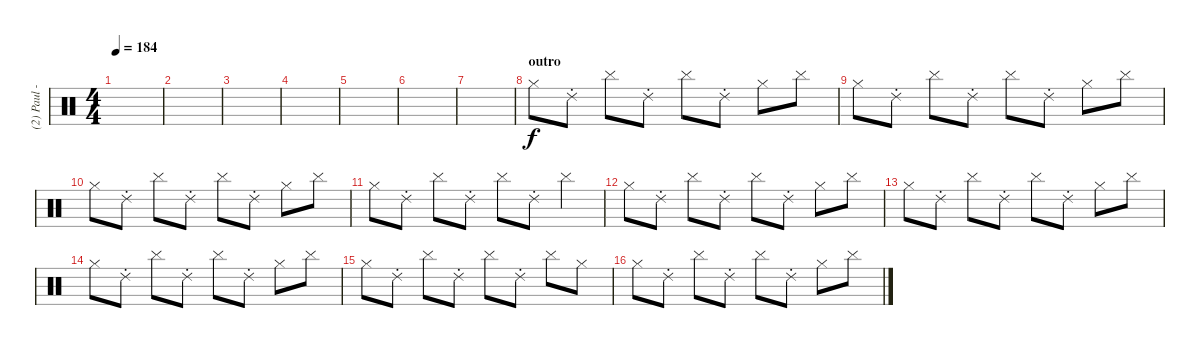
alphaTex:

\track ("(2) Paul - DJ" "(2) Paul -") {instrument percussion}
\staff {score}
\articulation defaults
\ts (4 4)
\tempo 184
\clef neutral
\ks c
|
|
|
|
|
|
|
\section ("" "outro")
"Hi-Hat (closed)".8 "Ride (choke) 2".8 "Cymbal (hit)".8 "Ride (choke) 2".8 "Cymbal (hit)".8 "Ride (choke) 2".8 "Hi-Hat (closed)".8 "Cymbal (hit)".8 |
"Hi-Hat (closed)".8 "Ride (choke) 2".8 "Cymbal (hit)".8 "Ride (choke) 2".8 "Cymbal (hit)".8 "Ride (choke) 2".8 "Hi-Hat (closed)".8 "Cymbal (hit)".8 |
"Hi-Hat (closed)".8 "Ride (choke) 2".8 "Cymbal (hit)".8 "Ride (choke) 2".8 "Cymbal (hit)".8 "Ride (choke) 2".8 "Hi-Hat (closed)".8 "Cymbal (hit)".8 |
"Hi-Hat (closed)".8 "Ride (choke) 2".8 "Cymbal (hit)".8 "Ride (choke) 2".8 "Cymbal (hit)".8 "Ride (choke) 2".8 "Cymbal (hit)".4 |
"Hi-Hat (closed)".8 "Ride (choke) 2".8 "Cymbal (hit)".8 "Ride (choke) 2".8 "Cymbal (hit)".8 "Ride (choke) 2".8 "Hi-Hat (closed)".8 "Cymbal (hit)".8 |
"Hi-Hat (closed)".8 "Ride (choke) 2".8 "Cymbal (hit)".8 "Ride (choke) 2".8 "Cymbal (hit)".8 "Ride (choke) 2".8 "Hi-Hat (closed)".8 "Cymbal (hit)".8 |
"Hi-Hat (closed)".8 "Ride (choke) 2".8 "Cymbal (hit)".8 "Ride (choke) 2".8 "Cymbal (hit)".8 "Ride (choke) 2".8 "Hi-Hat (closed)".8 "Cymbal (hit)".8 |
"Hi-Hat (closed)".8 "Ride (choke) 2".8 "Cymbal (hit)".8 "Ride (choke) 2".8 "Cymbal (hit)".8 "Ride (choke) 2".8 "Cymbal (hit)".8 "Hi-Hat (closed)".8 |
"Hi-Hat (closed)".8 "Ride (choke) 2".8 "Cymbal (hit)".8 "Ride (choke) 2".8 "Cymbal (hit)".8 "Ride (choke) 2".8 "Hi-Hat (closed)".8 "Cymbal (hit)".8
